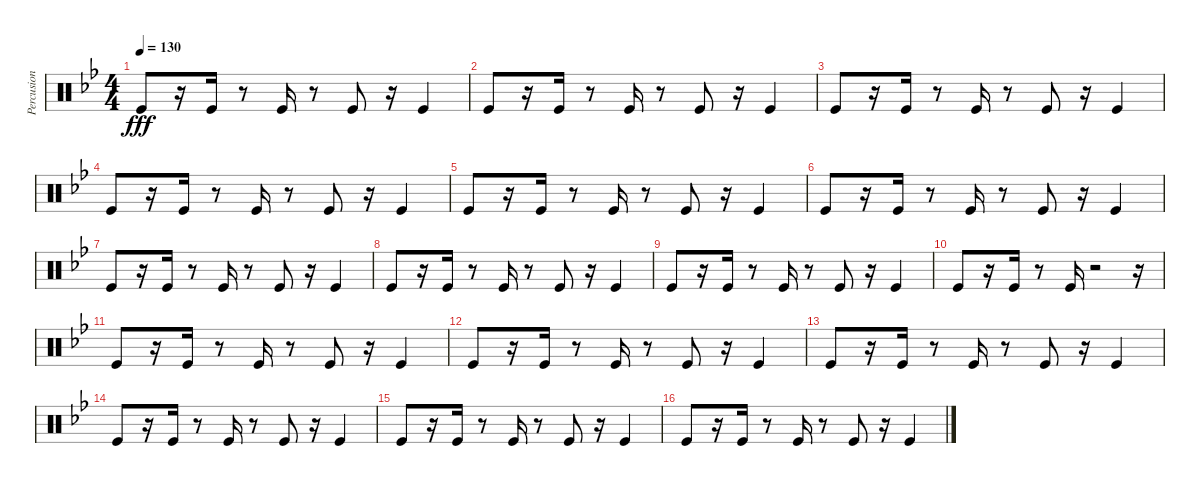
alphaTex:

\track ("Percusion II" "Percusion ") {instrument percussion}
\staff {score}
\articulation defaults
\ts (4 4)
\tempo 130
\clef neutral
\ks gminor "Kick (hit)".8{dy fff}
r.16 "Kick (hit)".16 r.8 "Kick (hit)".16 r.8 "Kick (hit)".8 r.16 "Kick (hit)".4 |
"Kick (hit)".8 r.16 "Kick (hit)".16 r.8 "Kick (hit)".16 r.8 "Kick (hit)".8 r.16 "Kick (hit)".4 |
"Kick (hit)".8 r.16 "Kick (hit)".16 r.8 "Kick (hit)".16 r.8 "Kick (hit)".8 r.16 "Kick (hit)".4 |
"Kick (hit)".8 r.16 "Kick (hit)".16 r.8 "Kick (hit)".16 r.8 "Kick (hit)".8 r.16 "Kick (hit)".4 |
"Kick (hit)".8 r.16 "Kick (hit)".16 r.8 "Kick (hit)".16 r.8 "Kick (hit)".8 r.16 "Kick (hit)".4 |
"Kick (hit)".8 r.16 "Kick (hit)".16 r.8 "Kick (hit)".16 r.8 "Kick (hit)".8 r.16 "Kick (hit)".4 |
"Kick (hit)".8 r.16 "Kick (hit)".16 r.8 "Kick (hit)".16 r.8 "Kick (hit)".8 r.16 "Kick (hit)".4 |
"Kick (hit)".8 r.16 "Kick (hit)".16 r.8 "Kick (hit)".16 r.8 "Kick (hit)".8 r.16 "Kick (hit)".4 |
"Kick (hit)".8 r.16 "Kick (hit)".16 r.8 "Kick (hit)".16 r.8 "Kick (hit)".8 r.16 "Kick (hit)".4 |
"Kick (hit)".8 r.16 "Kick (hit)".16 r.8 "Kick (hit)".16 r.2 r.16 |
"Kick (hit)".8 r.16 "Kick (hit)".16 r.8 "Kick (hit)".16 r.8 "Kick (hit)".8 r.16 "Kick (hit)".4 |
"Kick (hit)".8 r.16 "Kick (hit)".16 r.8 "Kick (hit)".16 r.8 "Kick (hit)".8 r.16 "Kick (hit)".4 |
"Kick (hit)".8 r.16 "Kick (hit)".16 r.8 "Kick (hit)".16 r.8 "Kick (hit)".8 r.16 "Kick (hit)".4 |
"Kick (hit)".8 r.16 "Kick (hit)".16 r.8 "Kick (hit)".16 r.8 "Kick (hit)".8 r.16 "Kick (hit)".4 |
"Kick (hit)".8 r.16 "Kick (hit)".16 r.8 "Kick (hit)".16 r.8 "Kick (hit)".8 r.16 "Kick (hit)".4 |
"Kick (hit)".8 r.16 "Kick (hit)".16 r.8 "Kick (hit)".16 r.8 "Kick (hit)".8 r.16 "Kick (hit)".4
